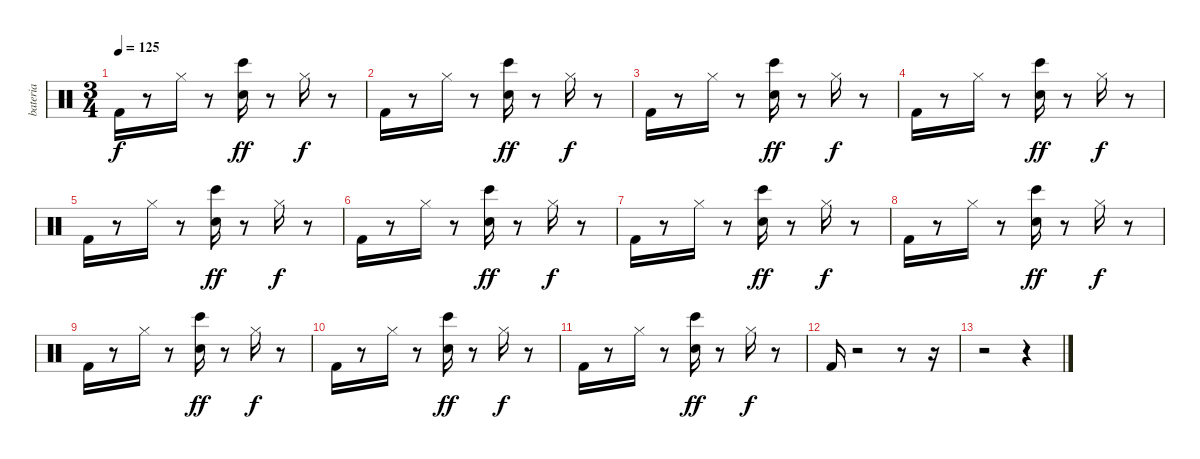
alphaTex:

\track ("bateria" "bateria") {instrument percussion}
\staff {score}
\articulation defaults
\ts (3 4)
\tempo 125
\clef neutral
\ks c "Kick (hit) 2".16{dy f}
r.8 "Hi-Hat (closed)".16 r.8 ("Snare (hit) 2" "Bongo High (hit)").16{dy ff} r.8 "Hi-Hat (closed)".16{dy f} r.8 |
"Kick (hit) 2".16 r.8 "Hi-Hat (closed)".16 r.8 ("Snare (hit) 2" "Bongo High (hit)").16{dy ff} r.8 "Hi-Hat (closed)".16{dy f} r.8 |
"Kick (hit) 2".16 r.8 "Hi-Hat (closed)".16 r.8 ("Bongo High (hit)" "Snare (hit) 2").16{dy ff} r.8 "Hi-Hat (closed)".16{dy f} r.8 |
"Kick (hit) 2".16 r.8 "Hi-Hat (closed)".16 r.8 ("Snare (hit) 2" "Bongo High (hit)").16{dy ff} r.8 "Hi-Hat (closed)".16{dy f} r.8 |
"Kick (hit) 2".16 r.8 "Hi-Hat (closed)".16 r.8 ("Snare (hit) 2" "Bongo High (hit)").16{dy ff} r.8 "Hi-Hat (closed)".16{dy f} r.8 |
"Kick (hit) 2".16 r.8 "Hi-Hat (closed)".16 r.8 ("Bongo High (hit)" "Snare (hit) 2").16{dy ff} r.8 "Hi-Hat (closed)".16{dy f} r.8 |
"Kick (hit) 2".16 r.8 "Hi-Hat (closed)".16 r.8 ("Snare (hit) 2" "Bongo High (hit)").16{dy ff} r.8 "Hi-Hat (closed)".16{dy f} r.8 |
"Kick (hit) 2".16 r.8 "Hi-Hat (closed)".16 r.8 ("Snare (hit) 2" "Bongo High (hit)").16{dy ff} r.8 "Hi-Hat (closed)".16{dy f} r.8 |
"Kick (hit) 2".16 r.8 "Hi-Hat (closed)".16 r.8 ("Bongo High (hit)" "Snare (hit) 2").16{dy ff} r.8 "Hi-Hat (closed)".16{dy f} r.8 |
"Kick (hit) 2".16 r.8 "Hi-Hat (closed)".16 r.8 ("Snare (hit) 2" "Bongo High (hit)").16{dy ff} r.8 "Hi-Hat (closed)".16{dy f} r.8 |
"Kick (hit) 2".16 r.8 "Hi-Hat (closed)".16 r.8 ("Snare (hit) 2" "Bongo High (hit)").16{dy ff} r.8 "Hi-Hat (closed)".16{dy f} r.8 |
"Kick (hit) 2".16 r.2 r.8 r.16 |
r.2 r.4
